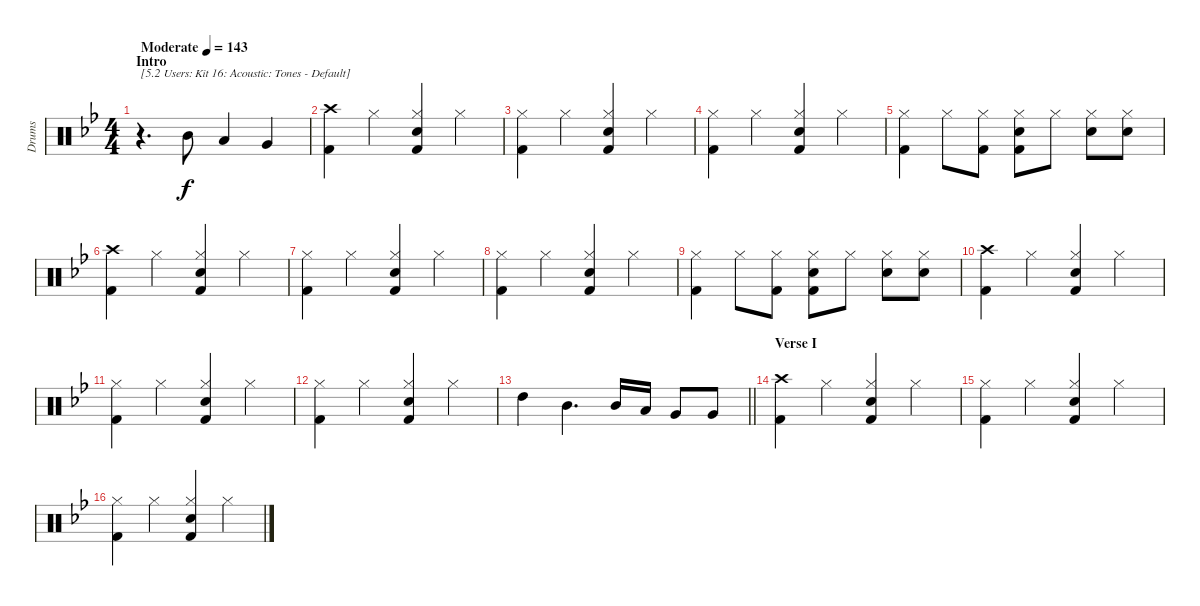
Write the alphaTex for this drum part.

\track ("Drums" "Drums") {instrument percussion}
\staff {score}
\articulation defaults
\ts (4 4)
\section ("" "Intro")
\tempo (143 "Moderate")
\clef neutral
\ks bb
r.4{d txt "[5.2 Users: Kit 16: Acoustic: Tones - Default]" dy f} "Mid Tom (hit)".8 "Low Tom (hit)".4 "Very Low Tom (hit)".4 |
("Crash high (hit)" "Kick (hit) 2").4 "Hi-Hat (closed)".4 ("Hi-Hat (closed)" "Snare (hit) 2" "Kick (hit) 2").4 "Hi-Hat (closed)".4 |
("Hi-Hat (closed)" "Kick (hit) 2").4 "Hi-Hat (closed)".4 ("Hi-Hat (closed)" "Snare (hit) 2" "Kick (hit) 2").4 "Hi-Hat (closed)".4 |
("Hi-Hat (closed)" "Kick (hit) 2").4 "Hi-Hat (closed)".4 ("Hi-Hat (closed)" "Snare (hit) 2" "Kick (hit) 2").4 "Hi-Hat (closed)".4 |
("Hi-Hat (closed)" "Kick (hit) 2").4 "Hi-Hat (closed)".8 ("Hi-Hat (closed)" "Kick (hit) 2").8 ("Hi-Hat (closed)" "Snare (hit) 2" "Kick (hit) 2").8 "Hi-Hat (closed)".8 ("Hi-Hat (closed)" "Snare (hit) 2").8 ("Hi-Hat (closed)" "Snare (hit) 2").8 |
("Crash high (hit)" "Kick (hit) 2").4 "Hi-Hat (closed)".4 ("Hi-Hat (closed)" "Snare (hit) 2" "Kick (hit) 2").4 "Hi-Hat (closed)".4 |
("Hi-Hat (closed)" "Kick (hit) 2").4 "Hi-Hat (closed)".4 ("Hi-Hat (closed)" "Snare (hit) 2" "Kick (hit) 2").4 "Hi-Hat (closed)".4 |
("Hi-Hat (closed)" "Kick (hit) 2").4 "Hi-Hat (closed)".4 ("Hi-Hat (closed)" "Snare (hit) 2" "Kick (hit) 2").4 "Hi-Hat (closed)".4 |
("Hi-Hat (closed)" "Kick (hit) 2").4 "Hi-Hat (closed)".8 ("Hi-Hat (closed)" "Kick (hit) 2").8 ("Hi-Hat (closed)" "Snare (hit) 2" "Kick (hit) 2").8 "Hi-Hat (closed)".8 ("Hi-Hat (closed)" "Snare (hit) 2").8 ("Hi-Hat (closed)" "Snare (hit) 2").8 |
("Crash high (hit)" "Kick (hit) 2").4 "Hi-Hat (closed)".4 ("Hi-Hat (closed)" "Snare (hit) 2" "Kick (hit) 2").4 "Hi-Hat (closed)".4 |
("Hi-Hat (closed)" "Kick (hit) 2").4 "Hi-Hat (closed)".4 ("Hi-Hat (closed)" "Snare (hit) 2" "Kick (hit) 2").4 "Hi-Hat (closed)".4 |
("Hi-Hat (closed)" "Kick (hit) 2").4 "Hi-Hat (closed)".4 ("Hi-Hat (closed)" "Snare (hit) 2" "Kick (hit) 2").4 "Hi-Hat (closed)".4 |
\barLineRight lightlight "High Tom (hit)".4 "Mid Tom (hit)".4{d} "Mid Tom (hit)".16 "Low Tom (hit)".16 "Very Low Tom (hit)".8 "Very Low Tom (hit)".8
|
\section ("" "Verse I")
("Crash high (hit)" "Kick (hit) 2").4 "Hi-Hat (closed)".4 ("Hi-Hat (closed)" "Snare (hit) 2" "Kick (hit) 2").4 "Hi-Hat (closed)".4 |
("Hi-Hat (closed)" "Kick (hit) 2").4 "Hi-Hat (closed)".4 ("Hi-Hat (closed)" "Snare (hit) 2" "Kick (hit) 2").4 "Hi-Hat (closed)".4 |
("Hi-Hat (closed)" "Kick (hit) 2").4 "Hi-Hat (closed)".4 ("Hi-Hat (closed)" "Snare (hit) 2" "Kick (hit) 2").4 "Hi-Hat (closed)".4
